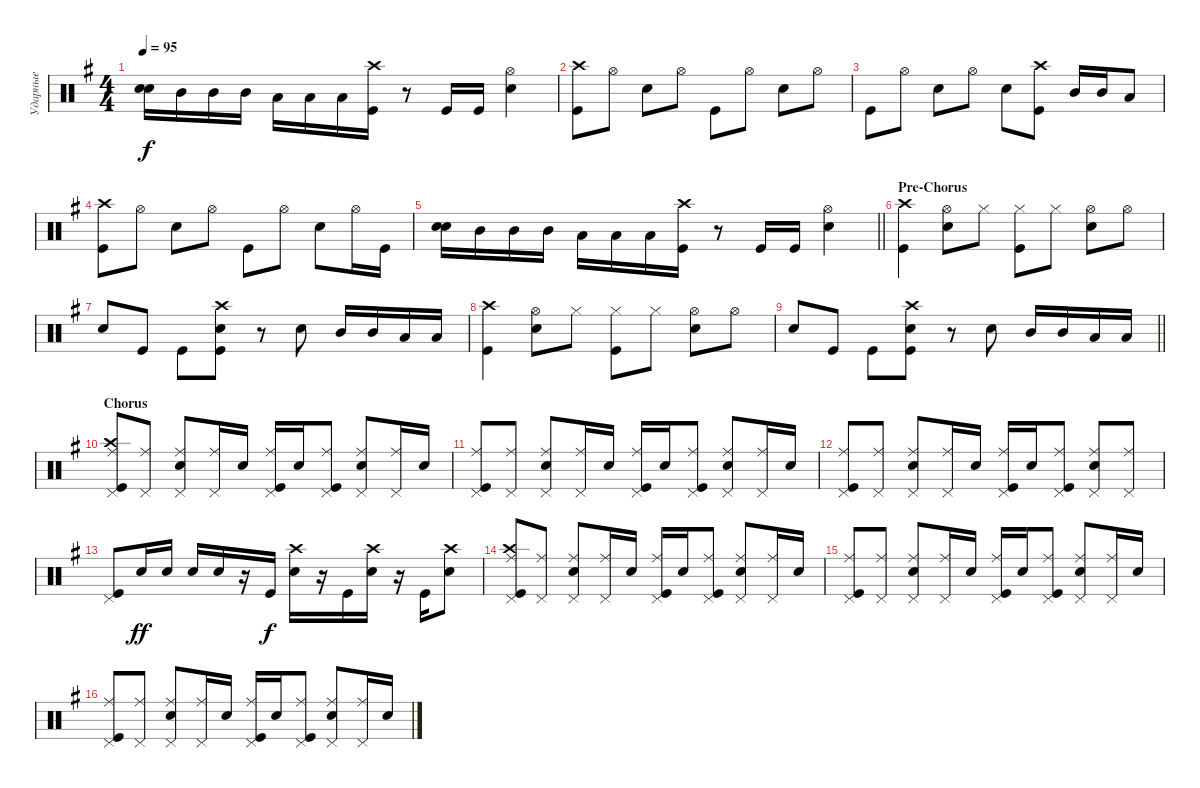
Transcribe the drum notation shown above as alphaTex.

\track ("Ударные" "Ударные") {instrument percussion}
\staff {score}
\articulation defaults
\ts (4 4)
\tempo 95
\clef neutral
\ks eminor
("Snare (hit) 2" "Snare (hit) 2").16{bd 120 dy f} "Mid Tom (hit)".16 "Mid Tom (hit)".16 "Mid Tom (hit)".16 "Low Tom (hit)".16 "Low Tom (hit)".16 "Low Tom (hit)".16 ("Kick (hit)" "Crash high (hit)").16 r.8 "Kick (hit)".16 "Kick (hit)".16 ("Snare (hit) 2" "Hi-Hat (open)").4 |
("Kick (hit)" "Crash high (hit)").8 "Hi-Hat (open)".8 "Snare (hit) 2".8 "Hi-Hat (open)".8 "Kick (hit)".8 "Hi-Hat (open)".8 "Snare (hit) 2".8 "Hi-Hat (open)".8 |
"Kick (hit)".8 "Hi-Hat (open)".8 "Snare (hit) 2".8 "Hi-Hat (open)".8 "Snare (hit) 2".8 ("Kick (hit)" "Crash high (hit)").8 "Mid Tom (hit)".16 "Mid Tom (hit)".16 "Low Tom (hit)".8 |
("Kick (hit)" "Crash high (hit)").8 "Hi-Hat (open)".8 "Snare (hit) 2".8 "Hi-Hat (open)".8 "Kick (hit)".8 "Hi-Hat (open)".8 "Snare (hit) 2".8 "Hi-Hat (open)".16 "Kick (hit)".16 |
\barLineRight lightlight
("Snare (hit) 2" "Snare (hit) 2").16{bd 120} "Mid Tom (hit)".16 "Mid Tom (hit)".16 "Mid Tom (hit)".16 "Low Tom (hit)".16 "Low Tom (hit)".16 "Low Tom (hit)".16 ("Kick (hit)" "Crash high (hit)").16 r.8 "Kick (hit)".16 "Kick (hit)".16 ("Snare (hit) 2" "Hi-Hat (open)").4 |
\section ("" "Pre-Chorus")
("Kick (hit)" "Crash high (hit)").4 ("Snare (hit) 2" "Hi-Hat (open)").8 "Hi-Hat (closed)".8 ("Kick (hit)" "Hi-Hat (closed)").8 "Hi-Hat (closed)".8 ("Snare (hit) 2" "Hi-Hat (open)").8 "Hi-Hat (open)".8 |
"Snare (hit) 2".8 "Kick (hit)".8 "Kick (hit)".8 ("Snare (hit) 2" "Kick (hit)" "Crash high (hit)").8 r.8 "Snare (hit) 2".8 "Mid Tom (hit)".16 "Mid Tom (hit)".16 "Low Tom (hit)".16 "Low Tom (hit)".16 |
("Kick (hit)" "Crash high (hit)").4 ("Snare (hit) 2" "Hi-Hat (open)").8 "Hi-Hat (closed)".8 ("Kick (hit)" "Hi-Hat (closed)").8 "Hi-Hat (closed)".8 ("Snare (hit) 2" "Hi-Hat (open)").8 "Hi-Hat (open)".8 |
\barLineRight lightlight "Snare (hit) 2".8 "Kick (hit)".8 "Kick (hit)".8
("Snare (hit) 2" "Kick (hit)" "Crash high (hit)").8 r.8 "Snare (hit) 2".8 "Mid Tom (hit)".16 "Mid Tom (hit)".16 "Low Tom (hit)".16 "Low Tom (hit)".16 |
\section ("" "Chorus")
("Kick (hit)" "Crash high (hit)" "Ride (middle)" "Pedal Hi-Hat (hit)").8 ("Pedal Hi-Hat (hit)" "Ride (middle)").8 ("Snare (hit) 2" "Pedal Hi-Hat (hit)" "Ride (middle)").8 ("Pedal Hi-Hat (hit)" "Ride (middle)").16 "Snare (hit) 2".16 ("Kick (hit)" "Pedal Hi-Hat (hit)" "Ride (middle)").16 "Snare (hit) 2".16 ("Kick (hit)" "Pedal Hi-Hat (hit)" "Ride (middle)").8 ("Snare (hit) 2" "Pedal Hi-Hat (hit)" "Ride (middle)").8 ("Pedal Hi-Hat (hit)" "Ride (middle)").16 "Snare (hit) 2".16 |
("Kick (hit)" "Ride (middle)" "Pedal Hi-Hat (hit)").8 ("Pedal Hi-Hat (hit)" "Ride (middle)").8 ("Snare (hit) 2" "Pedal Hi-Hat (hit)" "Ride (middle)").8 ("Pedal Hi-Hat (hit)" "Ride (middle)").16 "Snare (hit) 2".16 ("Kick (hit)" "Pedal Hi-Hat (hit)" "Ride (middle)").16 "Snare (hit) 2".16 ("Kick (hit)" "Pedal Hi-Hat (hit)" "Ride (middle)").8 ("Snare (hit) 2" "Pedal Hi-Hat (hit)" "Ride (middle)").8 ("Pedal Hi-Hat (hit)" "Ride (middle)").16 "Snare (hit) 2".16 |
("Kick (hit)" "Ride (middle)" "Pedal Hi-Hat (hit)").8 ("Pedal Hi-Hat (hit)" "Ride (middle)").8 ("Snare (hit) 2" "Pedal Hi-Hat (hit)" "Ride (middle)").8 ("Pedal Hi-Hat (hit)" "Ride (middle)").16 "Snare (hit) 2".16 ("Kick (hit)" "Pedal Hi-Hat (hit)" "Ride (middle)").16 "Snare (hit) 2".16 ("Kick (hit)" "Pedal Hi-Hat (hit)" "Ride (middle)").8 ("Snare (hit) 2" "Pedal Hi-Hat (hit)" "Ride (middle)").8 ("Pedal Hi-Hat (hit)" "Ride (middle)").8 |
("Kick (hit)" "Pedal Hi-Hat (hit)").8 "Snare (hit) 2".16{dy ff} "Snare (hit) 2".16 "Snare (hit) 2".16 "Snare (hit) 2".16 r.16 "Kick (hit)".16{dy f} ("Snare (hit) 2" "Crash high (hit)").16 r.16 "Kick (hit)".16 ("Snare (hit) 2" "Crash high (hit)").16 r.16 "Kick (hit)".16 ("Snare (hit) 2" "Crash high (hit)").8 |
("Kick (hit)" "Crash high (hit)" "Ride (middle)" "Pedal Hi-Hat (hit)").8 ("Pedal Hi-Hat (hit)" "Ride (middle)").8 ("Snare (hit) 2" "Pedal Hi-Hat (hit)" "Ride (middle)").8 ("Pedal Hi-Hat (hit)" "Ride (middle)").16 "Snare (hit) 2".16 ("Kick (hit)" "Pedal Hi-Hat (hit)" "Ride (middle)").16 "Snare (hit) 2".16 ("Kick (hit)" "Pedal Hi-Hat (hit)" "Ride (middle)").8 ("Snare (hit) 2" "Pedal Hi-Hat (hit)" "Ride (middle)").8 ("Pedal Hi-Hat (hit)" "Ride (middle)").16 "Snare (hit) 2".16 |
("Kick (hit)" "Ride (middle)" "Pedal Hi-Hat (hit)").8 ("Pedal Hi-Hat (hit)" "Ride (middle)").8 ("Snare (hit) 2" "Pedal Hi-Hat (hit)" "Ride (middle)").8 ("Pedal Hi-Hat (hit)" "Ride (middle)").16 "Snare (hit) 2".16 ("Kick (hit)" "Pedal Hi-Hat (hit)" "Ride (middle)").16 "Snare (hit) 2".16 ("Kick (hit)" "Pedal Hi-Hat (hit)" "Ride (middle)").8 ("Snare (hit) 2" "Pedal Hi-Hat (hit)" "Ride (middle)").8 ("Pedal Hi-Hat (hit)" "Ride (middle)").16 "Snare (hit) 2".16 |
("Kick (hit)" "Ride (middle)" "Pedal Hi-Hat (hit)").8 ("Pedal Hi-Hat (hit)" "Ride (middle)").8 ("Snare (hit) 2" "Pedal Hi-Hat (hit)" "Ride (middle)").8 ("Pedal Hi-Hat (hit)" "Ride (middle)").16 "Snare (hit) 2".16 ("Kick (hit)" "Pedal Hi-Hat (hit)" "Ride (middle)").16 "Snare (hit) 2".16 ("Kick (hit)" "Pedal Hi-Hat (hit)" "Ride (middle)").8 ("Snare (hit) 2" "Pedal Hi-Hat (hit)" "Ride (middle)").8 ("Pedal Hi-Hat (hit)" "Ride (middle)").16 "Snare (hit) 2".16
